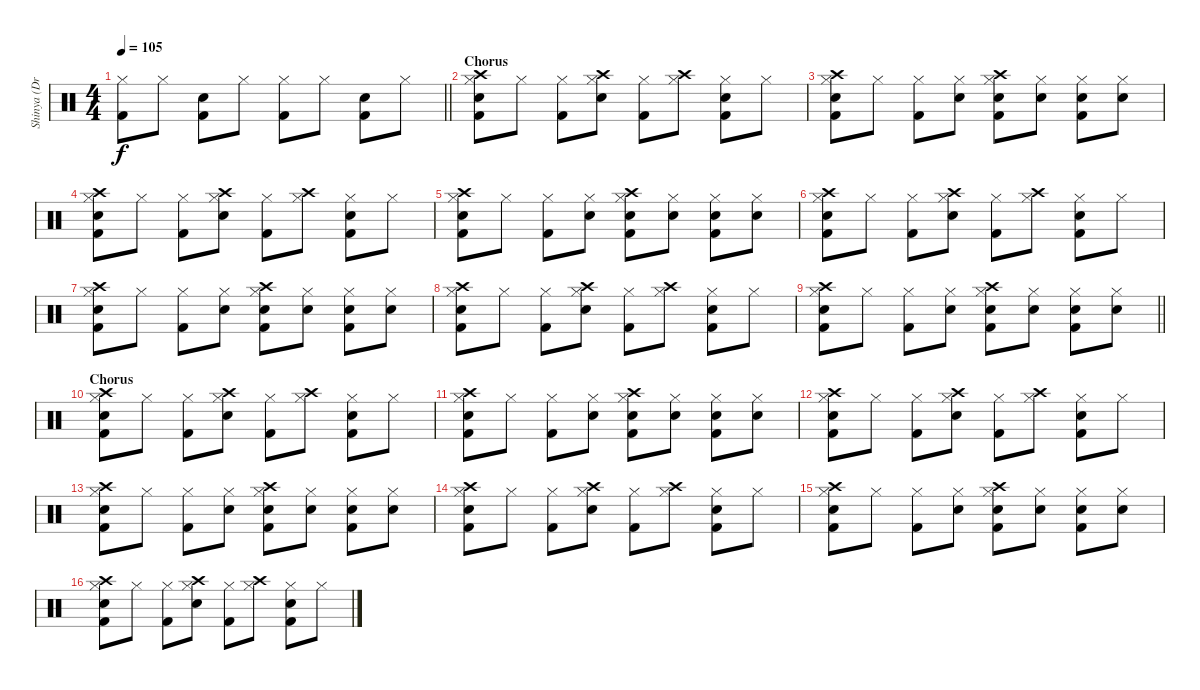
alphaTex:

\track ("Shinya (Drums)" "Shinya (Dr") {instrument percussion}
\staff {score}
\articulation defaults
\ts (4 4)
\tempo 105
\clef neutral
\barLineRight lightlight
\ks c
("Hi-Hat (closed)" "Kick (hit) 2").8{dy f} "Hi-Hat (closed)".8 ("Snare (hit) 2" "Kick (hit) 2").8 "Hi-Hat (closed)".8 ("Hi-Hat (closed)" "Kick (hit) 2").8 "Hi-Hat (closed)".8 ("Snare (hit) 2" "Kick (hit) 2").8 "Hi-Hat (closed)".8 |
\section ("" "Chorus")
("Crash high (hit)" "Hi-Hat (closed)" "Snare (hit) 2" "Kick (hit) 2").8 "Hi-Hat (closed)".8 ("Hi-Hat (closed)" "Kick (hit) 2").8 ("Crash high (hit)" "Hi-Hat (closed)" "Snare (hit) 2").8 ("Hi-Hat (closed)" "Kick (hit) 2").8 ("Crash high (hit)" "Hi-Hat (closed)").8 ("Hi-Hat (closed)" "Snare (hit) 2" "Kick (hit) 2").8 "Hi-Hat (closed)".8 |
("Crash high (hit)" "Hi-Hat (closed)" "Snare (hit) 2" "Kick (hit) 2").8 "Hi-Hat (closed)".8 ("Hi-Hat (closed)" "Kick (hit) 2").8 ("Hi-Hat (closed)" "Snare (hit) 2").8 ("Crash high (hit)" "Hi-Hat (closed)" "Snare (hit) 2" "Kick (hit) 2").8 ("Hi-Hat (closed)" "Snare (hit) 2").8 ("Hi-Hat (closed)" "Snare (hit) 2" "Kick (hit) 2").8 ("Hi-Hat (closed)" "Snare (hit) 2").8 |
("Crash high (hit)" "Hi-Hat (closed)" "Snare (hit) 2" "Kick (hit) 2").8 "Hi-Hat (closed)".8 ("Hi-Hat (closed)" "Kick (hit) 2").8 ("Crash high (hit)" "Hi-Hat (closed)" "Snare (hit) 2").8 ("Hi-Hat (closed)" "Kick (hit) 2").8 ("Crash high (hit)" "Hi-Hat (closed)").8 ("Hi-Hat (closed)" "Snare (hit) 2" "Kick (hit) 2").8 "Hi-Hat (closed)".8 |
("Crash high (hit)" "Hi-Hat (closed)" "Snare (hit) 2" "Kick (hit) 2").8 "Hi-Hat (closed)".8 ("Hi-Hat (closed)" "Kick (hit) 2").8 ("Hi-Hat (closed)" "Snare (hit) 2").8 ("Crash high (hit)" "Hi-Hat (closed)" "Snare (hit) 2" "Kick (hit) 2").8 ("Hi-Hat (closed)" "Snare (hit) 2").8 ("Hi-Hat (closed)" "Snare (hit) 2" "Kick (hit) 2").8 ("Hi-Hat (closed)" "Snare (hit) 2").8 |
("Crash high (hit)" "Hi-Hat (closed)" "Snare (hit) 2" "Kick (hit) 2").8 "Hi-Hat (closed)".8 ("Hi-Hat (closed)" "Kick (hit) 2").8 ("Crash high (hit)" "Hi-Hat (closed)" "Snare (hit) 2").8 ("Hi-Hat (closed)" "Kick (hit) 2").8 ("Crash high (hit)" "Hi-Hat (closed)").8 ("Hi-Hat (closed)" "Snare (hit) 2" "Kick (hit) 2").8 "Hi-Hat (closed)".8 |
("Crash high (hit)" "Hi-Hat (closed)" "Snare (hit) 2" "Kick (hit) 2").8 "Hi-Hat (closed)".8 ("Hi-Hat (closed)" "Kick (hit) 2").8 ("Hi-Hat (closed)" "Snare (hit) 2").8 ("Crash high (hit)" "Hi-Hat (closed)" "Snare (hit) 2" "Kick (hit) 2").8 ("Hi-Hat (closed)" "Snare (hit) 2").8 ("Hi-Hat (closed)" "Snare (hit) 2" "Kick (hit) 2").8 ("Hi-Hat (closed)" "Snare (hit) 2").8 |
("Crash high (hit)" "Hi-Hat (closed)" "Snare (hit) 2" "Kick (hit) 2").8 "Hi-Hat (closed)".8 ("Hi-Hat (closed)" "Kick (hit) 2").8 ("Crash high (hit)" "Hi-Hat (closed)" "Snare (hit) 2").8 ("Hi-Hat (closed)" "Kick (hit) 2").8 ("Crash high (hit)" "Hi-Hat (closed)").8 ("Hi-Hat (closed)" "Snare (hit) 2" "Kick (hit) 2").8 "Hi-Hat (closed)".8 |
\barLineRight lightlight
("Crash high (hit)" "Hi-Hat (closed)" "Snare (hit) 2" "Kick (hit) 2").8 "Hi-Hat (closed)".8 ("Hi-Hat (closed)" "Kick (hit) 2").8 ("Hi-Hat (closed)" "Snare (hit) 2").8 ("Crash high (hit)" "Hi-Hat (closed)" "Snare (hit) 2" "Kick (hit) 2").8 ("Hi-Hat (closed)" "Snare (hit) 2").8 ("Hi-Hat (closed)" "Snare (hit) 2" "Kick (hit) 2").8 ("Hi-Hat (closed)" "Snare (hit) 2").8 |
\section ("" "Chorus")
("Crash high (hit)" "Hi-Hat (closed)" "Snare (hit) 2" "Kick (hit) 2").8 "Hi-Hat (closed)".8 ("Hi-Hat (closed)" "Kick (hit) 2").8 ("Crash high (hit)" "Hi-Hat (closed)" "Snare (hit) 2").8 ("Hi-Hat (closed)" "Kick (hit) 2").8 ("Crash high (hit)" "Hi-Hat (closed)").8 ("Hi-Hat (closed)" "Snare (hit) 2" "Kick (hit) 2").8 "Hi-Hat (closed)".8 |
("Crash high (hit)" "Hi-Hat (closed)" "Snare (hit) 2" "Kick (hit) 2").8 "Hi-Hat (closed)".8 ("Hi-Hat (closed)" "Kick (hit) 2").8 ("Hi-Hat (closed)" "Snare (hit) 2").8 ("Crash high (hit)" "Hi-Hat (closed)" "Snare (hit) 2" "Kick (hit) 2").8 ("Hi-Hat (closed)" "Snare (hit) 2").8 ("Hi-Hat (closed)" "Snare (hit) 2" "Kick (hit) 2").8 ("Hi-Hat (closed)" "Snare (hit) 2").8 |
("Crash high (hit)" "Hi-Hat (closed)" "Snare (hit) 2" "Kick (hit) 2").8 "Hi-Hat (closed)".8 ("Hi-Hat (closed)" "Kick (hit) 2").8 ("Crash high (hit)" "Hi-Hat (closed)" "Snare (hit) 2").8 ("Hi-Hat (closed)" "Kick (hit) 2").8 ("Crash high (hit)" "Hi-Hat (closed)").8 ("Hi-Hat (closed)" "Snare (hit) 2" "Kick (hit) 2").8 "Hi-Hat (closed)".8 |
("Crash high (hit)" "Hi-Hat (closed)" "Snare (hit) 2" "Kick (hit) 2").8 "Hi-Hat (closed)".8 ("Hi-Hat (closed)" "Kick (hit) 2").8 ("Hi-Hat (closed)" "Snare (hit) 2").8 ("Crash high (hit)" "Hi-Hat (closed)" "Snare (hit) 2" "Kick (hit) 2").8 ("Hi-Hat (closed)" "Snare (hit) 2").8 ("Hi-Hat (closed)" "Snare (hit) 2" "Kick (hit) 2").8 ("Hi-Hat (closed)" "Snare (hit) 2").8 |
("Crash high (hit)" "Hi-Hat (closed)" "Snare (hit) 2" "Kick (hit) 2").8 "Hi-Hat (closed)".8 ("Hi-Hat (closed)" "Kick (hit) 2").8 ("Crash high (hit)" "Hi-Hat (closed)" "Snare (hit) 2").8 ("Hi-Hat (closed)" "Kick (hit) 2").8 ("Crash high (hit)" "Hi-Hat (closed)").8 ("Hi-Hat (closed)" "Snare (hit) 2" "Kick (hit) 2").8 "Hi-Hat (closed)".8 |
("Crash high (hit)" "Hi-Hat (closed)" "Snare (hit) 2" "Kick (hit) 2").8 "Hi-Hat (closed)".8 ("Hi-Hat (closed)" "Kick (hit) 2").8 ("Hi-Hat (closed)" "Snare (hit) 2").8 ("Crash high (hit)" "Hi-Hat (closed)" "Snare (hit) 2" "Kick (hit) 2").8 ("Hi-Hat (closed)" "Snare (hit) 2").8 ("Hi-Hat (closed)" "Snare (hit) 2" "Kick (hit) 2").8 ("Hi-Hat (closed)" "Snare (hit) 2").8 |
("Crash high (hit)" "Hi-Hat (closed)" "Snare (hit) 2" "Kick (hit) 2").8 "Hi-Hat (closed)".8 ("Hi-Hat (closed)" "Kick (hit) 2").8 ("Crash high (hit)" "Hi-Hat (closed)" "Snare (hit) 2").8 ("Hi-Hat (closed)" "Kick (hit) 2").8 ("Crash high (hit)" "Hi-Hat (closed)").8 ("Hi-Hat (closed)" "Snare (hit) 2" "Kick (hit) 2").8 "Hi-Hat (closed)".8
